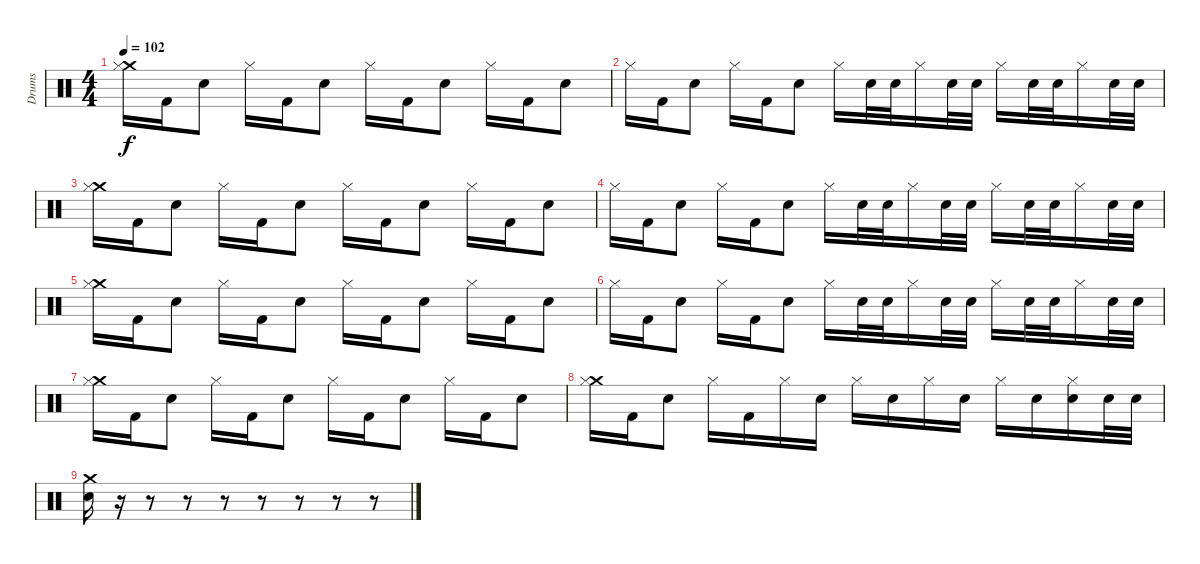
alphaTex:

\track ("Drums" "Drums") {instrument percussion}
\staff {score}
\articulation defaults
\ts (4 4)
\tempo 102
\clef neutral
\ks c
("Crash medium (hit)" "Hi-Hat (closed)").16{dy f} "Kick (hit) 2".16 "Electric Snare (hit)".8 "Hi-Hat (closed)".16 "Kick (hit) 2".16 "Electric Snare (hit)".8 "Hi-Hat (closed)".16 "Kick (hit) 2".16 "Electric Snare (hit)".8 "Hi-Hat (closed)".16 "Kick (hit) 2".16 "Electric Snare (hit)".8 |
"Hi-Hat (closed)".16 "Kick (hit) 2".16 "Electric Snare (hit)".8 "Hi-Hat (closed)".16 "Kick (hit) 2".16 "Electric Snare (hit)".8 "Hi-Hat (closed)".16 "Electric Snare (hit)".32 "Electric Snare (hit)".32 "Hi-Hat (closed)".16 "Electric Snare (hit)".32 "Electric Snare (hit)".32 "Hi-Hat (closed)".16 "Electric Snare (hit)".32 "Electric Snare (hit)".32 "Hi-Hat (closed)".16 "Electric Snare (hit)".32 "Electric Snare (hit)".32 |
("Crash medium (hit)" "Hi-Hat (closed)").16 "Kick (hit) 2".16 "Electric Snare (hit)".8 "Hi-Hat (closed)".16 "Kick (hit) 2".16 "Electric Snare (hit)".8 "Hi-Hat (closed)".16 "Kick (hit) 2".16 "Electric Snare (hit)".8 "Hi-Hat (closed)".16 "Kick (hit) 2".16 "Electric Snare (hit)".8 |
"Hi-Hat (closed)".16 "Kick (hit) 2".16 "Electric Snare (hit)".8 "Hi-Hat (closed)".16 "Kick (hit) 2".16 "Electric Snare (hit)".8 "Hi-Hat (closed)".16 "Electric Snare (hit)".32 "Electric Snare (hit)".32 "Hi-Hat (closed)".16 "Electric Snare (hit)".32 "Electric Snare (hit)".32 "Hi-Hat (closed)".16 "Electric Snare (hit)".32 "Electric Snare (hit)".32 "Hi-Hat (closed)".16 "Electric Snare (hit)".32 "Electric Snare (hit)".32 |
("Crash medium (hit)" "Hi-Hat (closed)").16 "Kick (hit) 2".16 "Electric Snare (hit)".8 "Hi-Hat (closed)".16 "Kick (hit) 2".16 "Electric Snare (hit)".8 "Hi-Hat (closed)".16 "Kick (hit) 2".16 "Electric Snare (hit)".8 "Hi-Hat (closed)".16 "Kick (hit) 2".16 "Electric Snare (hit)".8 |
"Hi-Hat (closed)".16 "Kick (hit) 2".16 "Electric Snare (hit)".8 "Hi-Hat (closed)".16 "Kick (hit) 2".16 "Electric Snare (hit)".8 "Hi-Hat (closed)".16 "Electric Snare (hit)".32 "Electric Snare (hit)".32 "Hi-Hat (closed)".16 "Electric Snare (hit)".32 "Electric Snare (hit)".32 "Hi-Hat (closed)".16 "Electric Snare (hit)".32 "Electric Snare (hit)".32 "Hi-Hat (closed)".16 "Electric Snare (hit)".32 "Electric Snare (hit)".32 |
("Crash medium (hit)" "Hi-Hat (closed)").16 "Kick (hit) 2".16 "Electric Snare (hit)".8 "Hi-Hat (closed)".16 "Kick (hit) 2".16 "Electric Snare (hit)".8 "Hi-Hat (closed)".16 "Kick (hit) 2".16 "Electric Snare (hit)".8 "Hi-Hat (closed)".16 "Kick (hit) 2".16 "Electric Snare (hit)".8 |
("Crash medium (hit)" "Hi-Hat (closed)").16 "Kick (hit) 2".16 "Electric Snare (hit)".8 "Hi-Hat (closed)".16 "Kick (hit) 2".16 "Hi-Hat (closed)".16 "Electric Snare (hit)".16 "Hi-Hat (closed)".16 "Electric Snare (hit)".16 "Hi-Hat (closed)".16 "Electric Snare (hit)".16 "Hi-Hat (closed)".16 "Electric Snare (hit)".16 ("Electric Snare (hit)" "Hi-Hat (closed)").16 "Electric Snare (hit)".32 "Electric Snare (hit)".32 |
("Crash medium (hit)" "Electric Snare (hit)").16 r.16 r.8 r.8 r.8 r.8 r.8 r.8 r.8
